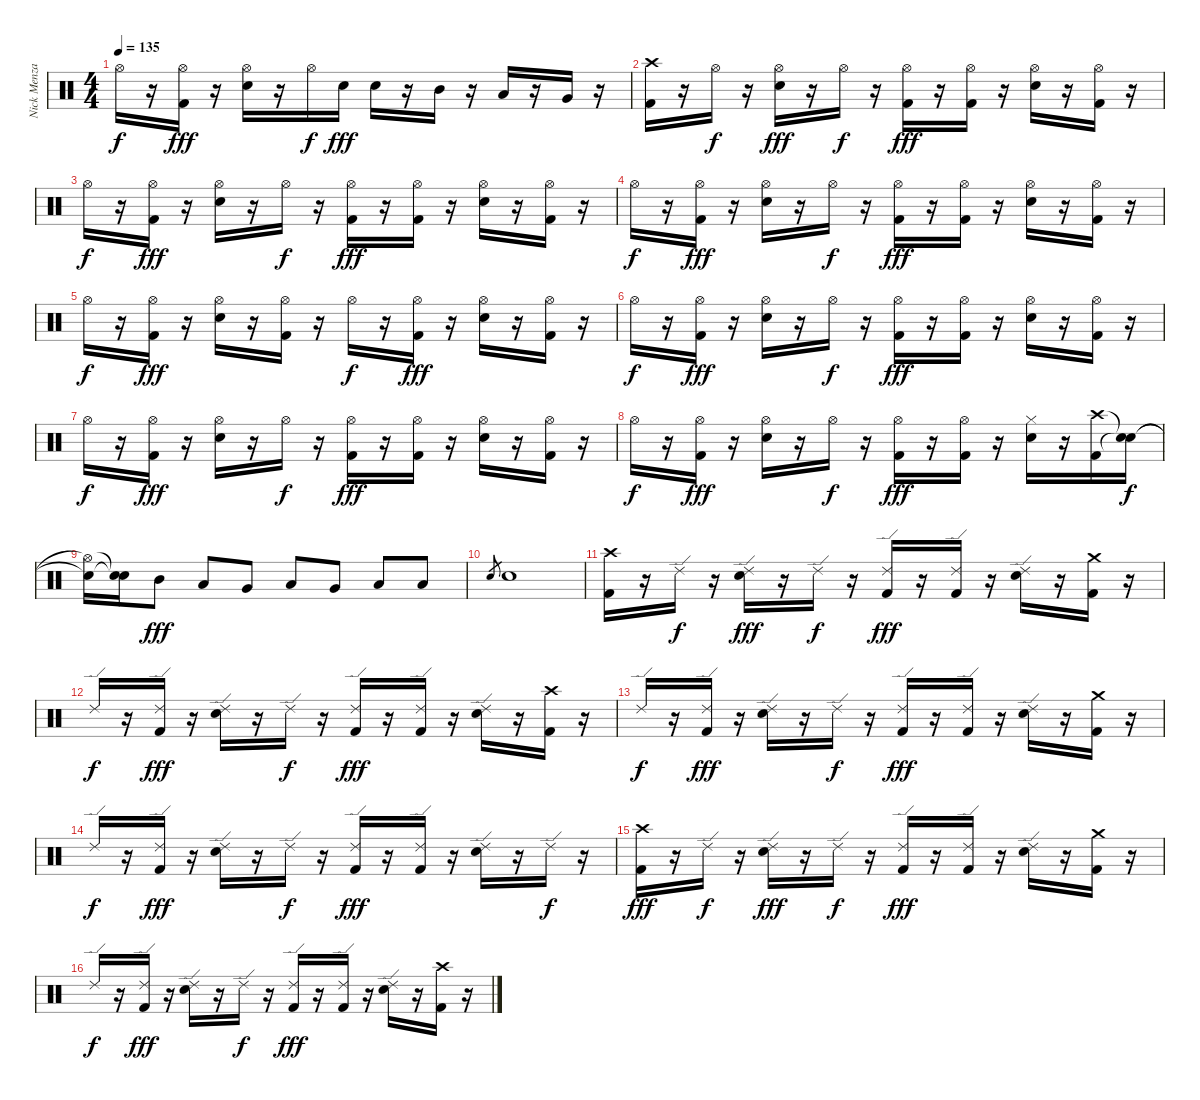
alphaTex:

\track ("Nick Menza" "Nick Menza") {instrument percussion}
\staff {score}
\articulation defaults
\ts (4 4)
\tempo 135
\clef neutral
\ks c "Hi-Hat (open)".16{dy f}
r.16 ("Kick (hit) 2" "Hi-Hat (open)").16{dy fff} r.16 ("Electric Snare (hit)" "Hi-Hat (open)").16 r.16 "Hi-Hat (open)".16{dy f} "Electric Snare (hit)".16{dy fff} "Electric Snare (hit)".16 r.16 "Mid Tom (hit)".16 r.16 "Low Tom (hit)".16 r.16 "Very Low Tom (hit)".16 r.16 |
("Kick (hit) 2" "Crash high (hit)").16 r.16 "Hi-Hat (open)".16{dy f} r.16 ("Electric Snare (hit)" "Hi-Hat (open)").16{dy fff} r.16 "Hi-Hat (open)".16{dy f} r.16 ("Kick (hit) 2" "Hi-Hat (open)").16{dy fff} r.16 ("Kick (hit) 2" "Hi-Hat (open)").16 r.16 ("Electric Snare (hit)" "Hi-Hat (open)").16 r.16 ("Kick (hit) 2" "Hi-Hat (open)").16 r.16 |
"Hi-Hat (open)".16{dy f} r.16 ("Kick (hit) 2" "Hi-Hat (open)").16{dy fff} r.16 ("Electric Snare (hit)" "Hi-Hat (open)").16 r.16 "Hi-Hat (open)".16{dy f} r.16 ("Kick (hit) 2" "Hi-Hat (open)").16{dy fff} r.16 ("Kick (hit) 2" "Hi-Hat (open)").16 r.16 ("Electric Snare (hit)" "Hi-Hat (open)").16 r.16 ("Kick (hit) 2" "Hi-Hat (open)").16 r.16 |
"Hi-Hat (open)".16{dy f} r.16 ("Kick (hit) 2" "Hi-Hat (open)").16{dy fff} r.16 ("Electric Snare (hit)" "Hi-Hat (open)").16 r.16 "Hi-Hat (open)".16{dy f} r.16 ("Kick (hit) 2" "Hi-Hat (open)").16{dy fff} r.16 ("Kick (hit) 2" "Hi-Hat (open)").16 r.16 ("Electric Snare (hit)" "Hi-Hat (open)").16 r.16 ("Kick (hit) 2" "Hi-Hat (open)").16 r.16 |
"Hi-Hat (open)".16{dy f} r.16 ("Kick (hit) 2" "Hi-Hat (open)").16{dy fff} r.16 ("Electric Snare (hit)" "Hi-Hat (open)").16 r.16 ("Kick (hit) 2" "Hi-Hat (open)").16 r.16 "Hi-Hat (open)".16{dy f} r.16 ("Kick (hit) 2" "Hi-Hat (open)").16{dy fff} r.16 ("Electric Snare (hit)" "Hi-Hat (open)").16 r.16 ("Kick (hit) 2" "Hi-Hat (open)").16 r.16 |
"Hi-Hat (open)".16{dy f} r.16 ("Kick (hit) 2" "Hi-Hat (open)").16{dy fff} r.16 ("Electric Snare (hit)" "Hi-Hat (open)").16 r.16 "Hi-Hat (open)".16{dy f} r.16 ("Kick (hit) 2" "Hi-Hat (open)").16{dy fff} r.16 ("Kick (hit) 2" "Hi-Hat (open)").16 r.16 ("Electric Snare (hit)" "Hi-Hat (open)").16 r.16 ("Kick (hit) 2" "Hi-Hat (open)").16 r.16 |
"Hi-Hat (open)".16{dy f} r.16 ("Kick (hit) 2" "Hi-Hat (open)").16{dy fff} r.16 ("Electric Snare (hit)" "Hi-Hat (open)").16 r.16 "Hi-Hat (open)".16{dy f} r.16 ("Kick (hit) 2" "Hi-Hat (open)").16{dy fff} r.16 ("Kick (hit) 2" "Hi-Hat (open)").16 r.16 ("Electric Snare (hit)" "Hi-Hat (open)").16 r.16 ("Kick (hit) 2" "Hi-Hat (open)").16 r.16 |
"Hi-Hat (open)".16{dy f} r.16 ("Kick (hit) 2" "Hi-Hat (open)").16{dy fff} r.16 ("Electric Snare (hit)" "Hi-Hat (open)").16 r.16 "Hi-Hat (open)".16{dy f} r.16 ("Kick (hit) 2" "Hi-Hat (open)").16{dy fff} r.16 ("Kick (hit) 2" "Hi-Hat (open)").16 r.16 ("Electric Snare (hit)" "Hi-Hat (closed)").16 r.16 ("Kick (hit) 2" "Crash high (hit)").16 ("Snare (hit)"{t} "Snare (hit)"{t}).16{dy f} |
("Snare (hit)"{t} "Hi-Hat (open)"{t}).16 ("Snare (hit)"{t} "Snare (hit)"{t}).16 "Mid Tom (hit)".8{dy fff} "Low Tom (hit)".8 "Very Low Tom (hit)".8 "Low Tom (hit)".8 "Very Low Tom (hit)".8 "Low Floor Tom (hit)".8 "Low Floor Tom (hit)".8 |
"Electric Snare (hit)".8{gr} "Electric Snare (hit)".1 |
("Kick (hit) 2" "Crash high (hit)").16 r.16 "Ride (edge) 2".16{dy f} r.16 ("Electric Snare (hit)" "Ride (edge) 2").16{dy fff} r.16 "Ride (edge) 2".16{dy f} r.16 ("Kick (hit) 2" "Ride (edge) 2").16{dy fff} r.16 ("Kick (hit) 2" "Ride (edge) 2").16 r.16 ("Electric Snare (hit)" "Ride (edge) 2").16 r.16 ("Kick (hit) 2" "Crash medium (hit)").16 r.16 |
"Ride (edge) 2".16{dy f} r.16 ("Kick (hit) 2" "Ride (edge) 2").16{dy fff} r.16 ("Electric Snare (hit)" "Ride (edge) 2").16 r.16 "Ride (edge) 2".16{dy f} r.16 ("Kick (hit) 2" "Ride (edge) 2").16{dy fff} r.16 ("Kick (hit) 2" "Ride (edge) 2").16 r.16 ("Electric Snare (hit)" "Ride (edge) 2").16 r.16 ("Kick (hit) 2" "Crash high (hit)").16 r.16 |
"Ride (edge) 2".16{dy f} r.16 ("Kick (hit) 2" "Ride (edge) 2").16{dy fff} r.16 ("Electric Snare (hit)" "Ride (edge) 2").16 r.16 "Ride (edge) 2".16{dy f} r.16 ("Kick (hit) 2" "Ride (edge) 2").16{dy fff} r.16 ("Kick (hit) 2" "Ride (edge) 2").16 r.16 ("Electric Snare (hit)" "Ride (edge) 2").16 r.16 ("Kick (hit) 2" "Crash medium (hit)").16 r.16 |
"Ride (edge) 2".16{dy f} r.16 ("Kick (hit) 2" "Ride (edge) 2").16{dy fff} r.16 ("Electric Snare (hit)" "Ride (edge) 2").16 r.16 "Ride (edge) 2".16{dy f} r.16 ("Kick (hit) 2" "Ride (edge) 2").16{dy fff} r.16 ("Kick (hit) 2" "Ride (edge) 2").16 r.16 ("Electric Snare (hit)" "Ride (edge) 2").16 r.16 "Ride (edge) 2".16{dy f} r.16 |
("Kick (hit) 2" "Crash high (hit)").16{dy fff} r.16 "Ride (edge) 2".16{dy f} r.16 ("Electric Snare (hit)" "Ride (edge) 2").16{dy fff} r.16 "Ride (edge) 2".16{dy f} r.16 ("Kick (hit) 2" "Ride (edge) 2").16{dy fff} r.16 ("Kick (hit) 2" "Ride (edge) 2").16 r.16 ("Electric Snare (hit)" "Ride (edge) 2").16 r.16 ("Kick (hit) 2" "Crash medium (hit)").16 r.16 |
"Ride (edge) 2".16{dy f} r.16 ("Kick (hit) 2" "Ride (edge) 2").16{dy fff} r.16 ("Electric Snare (hit)" "Ride (edge) 2").16 r.16 "Ride (edge) 2".16{dy f} r.16 ("Kick (hit) 2" "Ride (edge) 2").16{dy fff} r.16 ("Kick (hit) 2" "Ride (edge) 2").16 r.16 ("Electric Snare (hit)" "Ride (edge) 2").16 r.16 ("Kick (hit) 2" "Crash high (hit)").16 r.16
